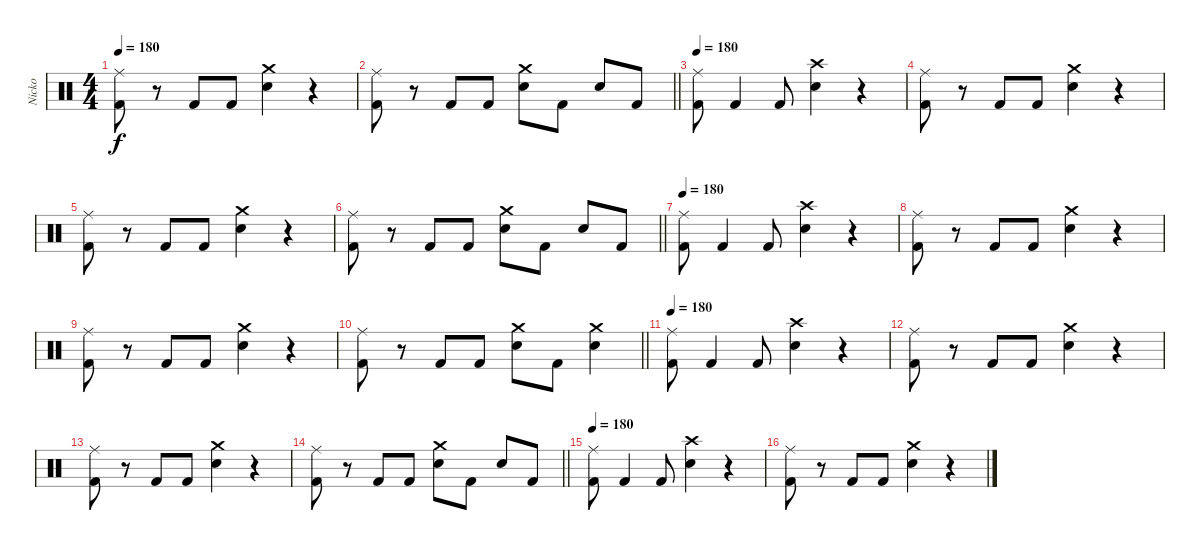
\track ("Nicko" "Nicko") {instrument percussion}
\staff {score}
\articulation defaults
\ts (4 4)
\tempo 180
\clef neutral
\ks c
("Ride (middle)" "Kick (hit) 2").8{dy f} r.8 "Kick (hit) 2".8 "Kick (hit) 2".8 ("Crash medium (hit)" "Snare (hit) 2").4 r.4 |
\barLineRight lightlight
("Ride (middle)" "Kick (hit) 2").8 r.8 "Kick (hit) 2".8 "Kick (hit) 2".8 ("Crash medium (hit)" "Snare (hit) 2").8 "Kick (hit) 2".8 "Snare (hit) 2".8 "Kick (hit) 2".8 |
\tempo 180
("Ride (middle)" "Kick (hit) 2").8 "Kick (hit) 2".4 "Kick (hit) 2".8 ("Crash high (hit)" "Snare (hit) 2").4 r.4 |
("Ride (middle)" "Kick (hit) 2").8 r.8 "Kick (hit) 2".8 "Kick (hit) 2".8 ("Crash medium (hit)" "Snare (hit) 2").4 r.4 |
("Ride (middle)" "Kick (hit) 2").8 r.8 "Kick (hit) 2".8 "Kick (hit) 2".8 ("Crash medium (hit)" "Snare (hit) 2").4 r.4 |
\barLineRight lightlight
("Ride (middle)" "Kick (hit) 2").8 r.8 "Kick (hit) 2".8 "Kick (hit) 2".8 ("Crash medium (hit)" "Snare (hit) 2").8 "Kick (hit) 2".8 "Snare (hit) 2".8 "Kick (hit) 2".8 |
\tempo 180
("Ride (middle)" "Kick (hit) 2").8 "Kick (hit) 2".4 "Kick (hit) 2".8 ("Crash high (hit)" "Snare (hit) 2").4 r.4 |
("Ride (middle)" "Kick (hit) 2").8 r.8 "Kick (hit) 2".8 "Kick (hit) 2".8 ("Crash medium (hit)" "Snare (hit) 2").4 r.4 |
("Ride (middle)" "Kick (hit) 2").8 r.8 "Kick (hit) 2".8 "Kick (hit) 2".8 ("Crash medium (hit)" "Snare (hit) 2").4 r.4 |
\barLineRight lightlight
("Ride (middle)" "Kick (hit) 2").8 r.8 "Kick (hit) 2".8 "Kick (hit) 2".8 ("Crash medium (hit)" "Snare (hit) 2").8 "Kick (hit) 2".8 ("Crash medium (hit)" "Snare (hit) 2").4 |
\tempo 180
("Ride (middle)" "Kick (hit) 2").8 "Kick (hit) 2".4 "Kick (hit) 2".8 ("Crash high (hit)" "Snare (hit) 2").4 r.4 |
("Ride (middle)" "Kick (hit) 2").8 r.8 "Kick (hit) 2".8 "Kick (hit) 2".8 ("Crash medium (hit)" "Snare (hit) 2").4 r.4 |
("Ride (middle)" "Kick (hit) 2").8 r.8 "Kick (hit) 2".8 "Kick (hit) 2".8 ("Crash medium (hit)" "Snare (hit) 2").4 r.4 |
\barLineRight lightlight
("Ride (middle)" "Kick (hit) 2").8 r.8 "Kick (hit) 2".8 "Kick (hit) 2".8 ("Crash medium (hit)" "Snare (hit) 2").8 "Kick (hit) 2".8 "Snare (hit) 2".8 "Kick (hit) 2".8 |
\tempo 180
("Ride (middle)" "Kick (hit) 2").8 "Kick (hit) 2".4 "Kick (hit) 2".8 ("Crash high (hit)" "Snare (hit) 2").4 r.4 |
("Ride (middle)" "Kick (hit) 2").8 r.8 "Kick (hit) 2".8 "Kick (hit) 2".8 ("Crash medium (hit)" "Snare (hit) 2").4 r.4
